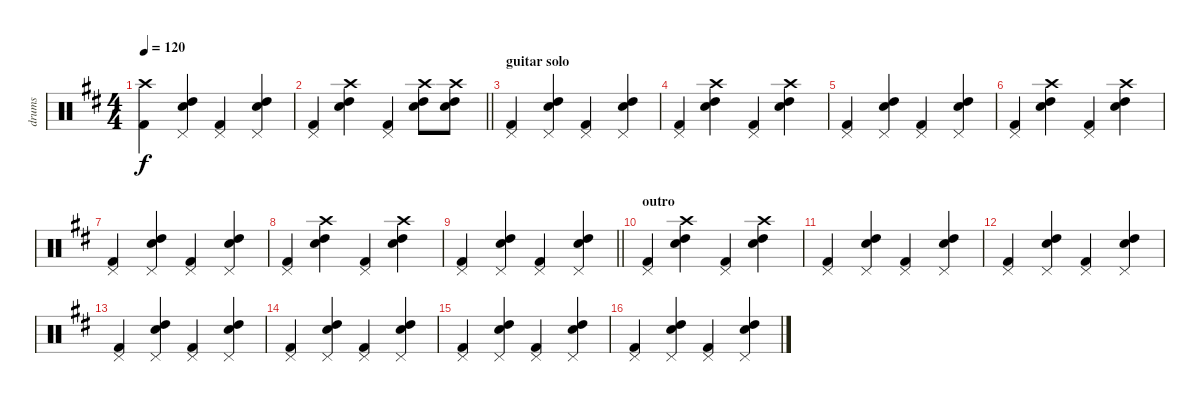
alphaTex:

\track ("drums" "drums") {instrument percussion}
\staff {score}
\articulation defaults
\ts (4 4)
\tempo 120
\clef neutral
\ks d
("Crash high (hit)" "Kick (hit) 2").4{dy f} ("Pedal Hi-Hat (hit)" "High Tom (hit)" "Electric Snare (hit)").4 ("Kick (hit) 2" "Pedal Hi-Hat (hit)").4 ("Pedal Hi-Hat (hit)" "High Tom (hit)" "Electric Snare (hit)").4 |
\barLineRight lightlight
("Pedal Hi-Hat (hit)" "Kick (hit) 2").4 ("Crash high (hit)" "High Tom (hit)" "Electric Snare (hit)").4 ("Kick (hit) 2" "Pedal Hi-Hat (hit)").4 ("Crash high (hit)" "High Tom (hit)" "Electric Snare (hit)").8 ("Crash high (hit)" "High Tom (hit)" "Electric Snare (hit)").8 |
\section ("" "guitar solo")
("Pedal Hi-Hat (hit)" "Kick (hit) 2").4 ("Pedal Hi-Hat (hit)" "High Tom (hit)" "Electric Snare (hit)").4 ("Kick (hit) 2" "Pedal Hi-Hat (hit)").4 ("Pedal Hi-Hat (hit)" "High Tom (hit)" "Electric Snare (hit)").4 |
("Pedal Hi-Hat (hit)" "Kick (hit) 2").4 ("Crash high (hit)" "High Tom (hit)" "Electric Snare (hit)").4 ("Kick (hit) 2" "Pedal Hi-Hat (hit)").4 ("Crash high (hit)" "High Tom (hit)" "Electric Snare (hit)").4 |
("Pedal Hi-Hat (hit)" "Kick (hit) 2").4 ("Pedal Hi-Hat (hit)" "High Tom (hit)" "Electric Snare (hit)").4 ("Kick (hit) 2" "Pedal Hi-Hat (hit)").4 ("Pedal Hi-Hat (hit)" "High Tom (hit)" "Electric Snare (hit)").4 |
("Pedal Hi-Hat (hit)" "Kick (hit) 2").4 ("Crash high (hit)" "High Tom (hit)" "Electric Snare (hit)").4 ("Kick (hit) 2" "Pedal Hi-Hat (hit)").4 ("Crash high (hit)" "High Tom (hit)" "Electric Snare (hit)").4 |
("Pedal Hi-Hat (hit)" "Kick (hit) 2").4 ("Pedal Hi-Hat (hit)" "High Tom (hit)" "Electric Snare (hit)").4 ("Kick (hit) 2" "Pedal Hi-Hat (hit)").4 ("Pedal Hi-Hat (hit)" "High Tom (hit)" "Electric Snare (hit)").4 |
("Pedal Hi-Hat (hit)" "Kick (hit) 2").4 ("Crash high (hit)" "High Tom (hit)" "Electric Snare (hit)").4 ("Kick (hit) 2" "Pedal Hi-Hat (hit)").4 ("Crash high (hit)" "High Tom (hit)" "Electric Snare (hit)").4 |
\barLineRight lightlight
("Pedal Hi-Hat (hit)" "Kick (hit) 2").4 ("Pedal Hi-Hat (hit)" "High Tom (hit)" "Electric Snare (hit)").4 ("Kick (hit) 2" "Pedal Hi-Hat (hit)").4 ("Pedal Hi-Hat (hit)" "High Tom (hit)" "Electric Snare (hit)").4 |
\section ("" "outro")
("Pedal Hi-Hat (hit)" "Kick (hit) 2").4 ("Crash high (hit)" "High Tom (hit)" "Electric Snare (hit)").4 ("Kick (hit) 2" "Pedal Hi-Hat (hit)").4 ("Crash high (hit)" "High Tom (hit)" "Electric Snare (hit)").4 |
("Pedal Hi-Hat (hit)" "Kick (hit) 2").4 ("Pedal Hi-Hat (hit)" "High Tom (hit)" "Electric Snare (hit)").4 ("Kick (hit) 2" "Pedal Hi-Hat (hit)").4 ("Pedal Hi-Hat (hit)" "High Tom (hit)" "Electric Snare (hit)").4 |
("Pedal Hi-Hat (hit)" "Kick (hit) 2").4 ("Pedal Hi-Hat (hit)" "High Tom (hit)" "Electric Snare (hit)").4 ("Kick (hit) 2" "Pedal Hi-Hat (hit)").4 ("Pedal Hi-Hat (hit)" "High Tom (hit)" "Electric Snare (hit)").4 |
("Pedal Hi-Hat (hit)" "Kick (hit) 2").4 ("Pedal Hi-Hat (hit)" "High Tom (hit)" "Electric Snare (hit)").4 ("Kick (hit) 2" "Pedal Hi-Hat (hit)").4 ("Pedal Hi-Hat (hit)" "High Tom (hit)" "Electric Snare (hit)").4 |
("Pedal Hi-Hat (hit)" "Kick (hit) 2").4 ("Pedal Hi-Hat (hit)" "High Tom (hit)" "Electric Snare (hit)").4 ("Kick (hit) 2" "Pedal Hi-Hat (hit)").4 ("Pedal Hi-Hat (hit)" "High Tom (hit)" "Electric Snare (hit)").4 |
("Pedal Hi-Hat (hit)" "Kick (hit) 2").4 ("Pedal Hi-Hat (hit)" "High Tom (hit)" "Electric Snare (hit)").4 ("Kick (hit) 2" "Pedal Hi-Hat (hit)").4 ("Pedal Hi-Hat (hit)" "High Tom (hit)" "Electric Snare (hit)").4 |
("Pedal Hi-Hat (hit)" "Kick (hit) 2").4 ("Pedal Hi-Hat (hit)" "High Tom (hit)" "Electric Snare (hit)").4 ("Kick (hit) 2" "Pedal Hi-Hat (hit)").4 ("Pedal Hi-Hat (hit)" "High Tom (hit)" "Electric Snare (hit)").4
